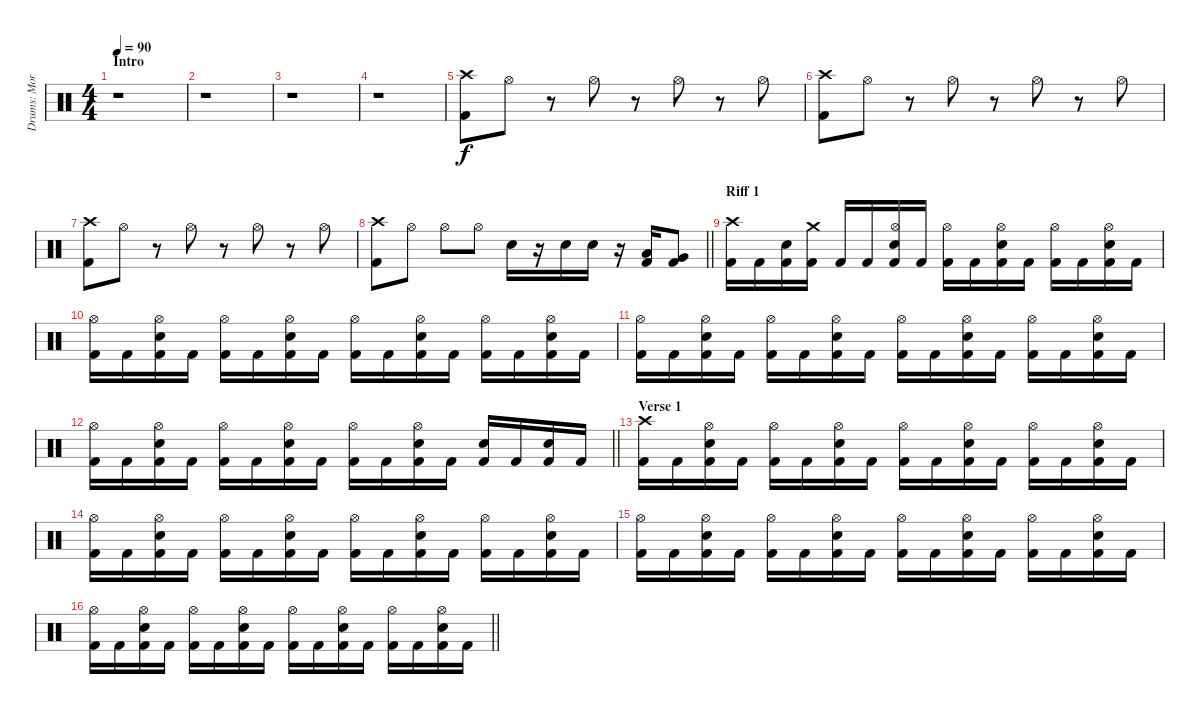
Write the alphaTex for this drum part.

\track ("Drums: Morten Færøvig" "Drums: Mor") {instrument percussion}
\staff {score}
\articulation defaults
\ts (4 4)
\section ("" "Intro")
\tempo 90
\clef neutral
\ks aminor
r.1{dy f} |
r.1 |
r.1 |
r.1 |
("Crash high (hit)" "Kick (hit) 2").8 "Hi-Hat (open)".8 r.8 "Hi-Hat (open)".8 r.8 "Hi-Hat (open)".8 r.8 "Hi-Hat (open)".8 |
("Crash high (hit)" "Kick (hit) 2").8 "Hi-Hat (open)".8 r.8 "Hi-Hat (open)".8 r.8 "Hi-Hat (open)".8 r.8 "Hi-Hat (open)".8 |
("Crash high (hit)" "Kick (hit) 2").8 "Hi-Hat (open)".8 r.8 "Hi-Hat (open)".8 r.8 "Hi-Hat (open)".8 r.8 "Hi-Hat (open)".8 |
\barLineRight lightlight
("Crash high (hit)" "Kick (hit) 2").8 "Hi-Hat (open)".8 "Hi-Hat (open)".8 "Hi-Hat (open)".8 "Electric Snare (hit)".16 r.16 "Electric Snare (hit)".16 "Electric Snare (hit)".16 r.16 ("Low Tom (hit)" "Kick (hit) 2").16 ("Very Low Tom (hit)" "Kick (hit) 2").8 |
\section ("" "Riff 1")
("Crash high (hit)" "Kick (hit) 2").16 "Kick (hit) 2".16 ("Electric Snare (hit)" "Kick (hit) 2").16 ("Crash medium (hit)" "Kick (hit) 2").16 "Kick (hit) 2".16 "Kick (hit) 2".16 ("Hi-Hat (open)" "Electric Snare (hit)" "Kick (hit) 2").16 "Kick (hit) 2".16 ("Hi-Hat (open)" "Kick (hit) 2").16 "Kick (hit) 2".16 ("Hi-Hat (open)" "Electric Snare (hit)" "Kick (hit) 2").16 "Kick (hit) 2".16 ("Hi-Hat (open)" "Kick (hit) 2").16 "Kick (hit) 2".16 ("Hi-Hat (open)" "Electric Snare (hit)" "Kick (hit) 2").16 "Kick (hit) 2".16 |
("Hi-Hat (open)" "Kick (hit) 2").16 "Kick (hit) 2".16 ("Hi-Hat (open)" "Electric Snare (hit)" "Kick (hit) 2").16 "Kick (hit) 2".16 ("Hi-Hat (open)" "Kick (hit) 2").16 "Kick (hit) 2".16 ("Hi-Hat (open)" "Electric Snare (hit)" "Kick (hit) 2").16 "Kick (hit) 2".16 ("Hi-Hat (open)" "Kick (hit) 2").16 "Kick (hit) 2".16 ("Hi-Hat (open)" "Electric Snare (hit)" "Kick (hit) 2").16 "Kick (hit) 2".16 ("Hi-Hat (open)" "Kick (hit) 2").16 "Kick (hit) 2".16 ("Hi-Hat (open)" "Electric Snare (hit)" "Kick (hit) 2").16 "Kick (hit) 2".16 |
("Hi-Hat (open)" "Kick (hit) 2").16 "Kick (hit) 2".16 ("Hi-Hat (open)" "Electric Snare (hit)" "Kick (hit) 2").16 "Kick (hit) 2".16 ("Hi-Hat (open)" "Kick (hit) 2").16 "Kick (hit) 2".16 ("Hi-Hat (open)" "Electric Snare (hit)" "Kick (hit) 2").16 "Kick (hit) 2".16 ("Hi-Hat (open)" "Kick (hit) 2").16 "Kick (hit) 2".16 ("Hi-Hat (open)" "Electric Snare (hit)" "Kick (hit) 2").16 "Kick (hit) 2".16 ("Hi-Hat (open)" "Kick (hit) 2").16 "Kick (hit) 2".16 ("Hi-Hat (open)" "Electric Snare (hit)" "Kick (hit) 2").16 "Kick (hit) 2".16 |
\barLineRight lightlight
("Hi-Hat (open)" "Kick (hit) 2").16 "Kick (hit) 2".16 ("Hi-Hat (open)" "Electric Snare (hit)" "Kick (hit) 2").16 "Kick (hit) 2".16 ("Hi-Hat (open)" "Kick (hit) 2").16 "Kick (hit) 2".16 ("Hi-Hat (open)" "Electric Snare (hit)" "Kick (hit) 2").16 "Kick (hit) 2".16 ("Hi-Hat (open)" "Kick (hit) 2").16 "Kick (hit) 2".16 ("Hi-Hat (open)" "Electric Snare (hit)" "Kick (hit) 2").16 "Kick (hit) 2".16 ("Electric Snare (hit)" "Kick (hit) 2").16 "Kick (hit) 2".16 ("Electric Snare (hit)" "Kick (hit) 2").16 "Kick (hit) 2".16 |
\section ("" "Verse 1")
("Crash high (hit)" "Kick (hit) 2").16 "Kick (hit) 2".16 ("Hi-Hat (open)" "Electric Snare (hit)" "Kick (hit) 2").16 "Kick (hit) 2".16 ("Hi-Hat (open)" "Kick (hit) 2").16 "Kick (hit) 2".16 ("Hi-Hat (open)" "Electric Snare (hit)" "Kick (hit) 2").16 "Kick (hit) 2".16 ("Hi-Hat (open)" "Kick (hit) 2").16 "Kick (hit) 2".16 ("Hi-Hat (open)" "Electric Snare (hit)" "Kick (hit) 2").16 "Kick (hit) 2".16 ("Hi-Hat (open)" "Kick (hit) 2").16 "Kick (hit) 2".16 ("Hi-Hat (open)" "Electric Snare (hit)" "Kick (hit) 2").16 "Kick (hit) 2".16 |
("Hi-Hat (open)" "Kick (hit) 2").16 "Kick (hit) 2".16 ("Hi-Hat (open)" "Electric Snare (hit)" "Kick (hit) 2").16 "Kick (hit) 2".16 ("Hi-Hat (open)" "Kick (hit) 2").16 "Kick (hit) 2".16 ("Hi-Hat (open)" "Electric Snare (hit)" "Kick (hit) 2").16 "Kick (hit) 2".16 ("Hi-Hat (open)" "Kick (hit) 2").16 "Kick (hit) 2".16 ("Hi-Hat (open)" "Electric Snare (hit)" "Kick (hit) 2").16 "Kick (hit) 2".16 ("Hi-Hat (open)" "Kick (hit) 2").16 "Kick (hit) 2".16 ("Hi-Hat (open)" "Electric Snare (hit)" "Kick (hit) 2").16 "Kick (hit) 2".16 |
("Hi-Hat (open)" "Kick (hit) 2").16 "Kick (hit) 2".16 ("Hi-Hat (open)" "Electric Snare (hit)" "Kick (hit) 2").16 "Kick (hit) 2".16 ("Hi-Hat (open)" "Kick (hit) 2").16 "Kick (hit) 2".16 ("Hi-Hat (open)" "Electric Snare (hit)" "Kick (hit) 2").16 "Kick (hit) 2".16 ("Hi-Hat (open)" "Kick (hit) 2").16 "Kick (hit) 2".16 ("Hi-Hat (open)" "Electric Snare (hit)" "Kick (hit) 2").16 "Kick (hit) 2".16 ("Hi-Hat (open)" "Kick (hit) 2").16 "Kick (hit) 2".16 ("Hi-Hat (open)" "Electric Snare (hit)" "Kick (hit) 2").16 "Kick (hit) 2".16 |
\barLineRight lightlight
("Hi-Hat (open)" "Kick (hit) 2").16 "Kick (hit) 2".16 ("Hi-Hat (open)" "Electric Snare (hit)" "Kick (hit) 2").16 "Kick (hit) 2".16 ("Hi-Hat (open)" "Kick (hit) 2").16 "Kick (hit) 2".16 ("Hi-Hat (open)" "Electric Snare (hit)" "Kick (hit) 2").16 "Kick (hit) 2".16 ("Hi-Hat (open)" "Kick (hit) 2").16 "Kick (hit) 2".16 ("Hi-Hat (open)" "Electric Snare (hit)" "Kick (hit) 2").16 "Kick (hit) 2".16 ("Hi-Hat (open)" "Kick (hit) 2").16 "Kick (hit) 2".16 ("Hi-Hat (open)" "Electric Snare (hit)" "Kick (hit) 2").16 "Kick (hit) 2".16
